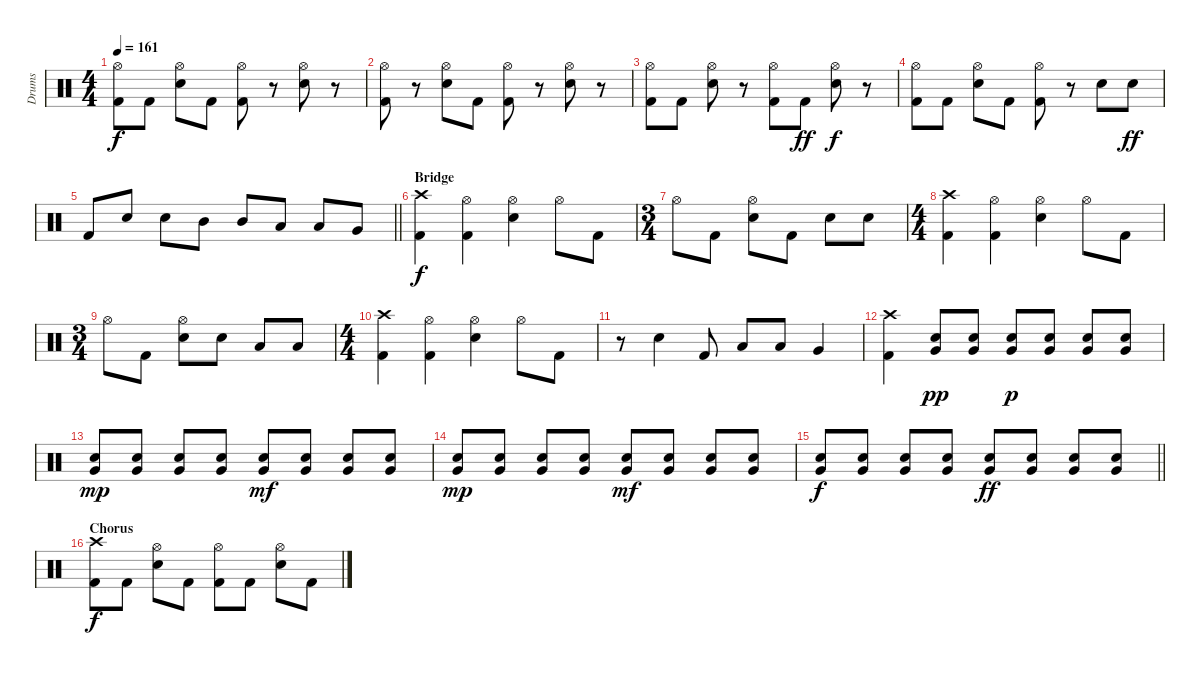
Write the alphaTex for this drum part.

\track ("Drums" "Drums") {instrument percussion}
\staff {score}
\articulation defaults
\ts (4 4)
\tempo 161
\clef neutral
\ks c
("Hi-Hat (open)" "Kick (hit) 2").8{dy f} "Kick (hit) 2".8 ("Hi-Hat (open)" "Snare (hit) 2").8 "Kick (hit) 2".8 ("Hi-Hat (open)" "Kick (hit) 2").8 r.8 ("Hi-Hat (open)" "Snare (hit) 2").8 r.8 |
("Hi-Hat (open)" "Kick (hit) 2").8 r.8 ("Hi-Hat (open)" "Snare (hit) 2").8 "Kick (hit) 2".8 ("Hi-Hat (open)" "Kick (hit) 2").8 r.8 ("Hi-Hat (open)" "Snare (hit) 2").8 r.8 |
("Hi-Hat (open)" "Kick (hit) 2").8 "Kick (hit) 2".8 ("Hi-Hat (open)" "Snare (hit) 2").8 r.8 ("Hi-Hat (open)" "Kick (hit) 2").8 "Kick (hit) 2".8{dy ff} ("Hi-Hat (open)" "Snare (hit) 2").8{dy f} r.8 |
("Hi-Hat (open)" "Kick (hit) 2").8 "Kick (hit) 2".8 ("Hi-Hat (open)" "Snare (hit) 2").8 "Kick (hit) 2".8 ("Hi-Hat (open)" "Kick (hit) 2").8 r.8 "Snare (hit) 2".8 "Snare (hit) 2".8{dy ff} |
\barLineRight lightlight "Kick (hit) 2".8 "Snare (hit) 2".8 "Snare (hit) 2".8 "Mid Tom (hit)".8 "Mid Tom (hit)".8 "Low Tom (hit)".8 "Low Tom (hit)".8 "Very Low Tom (hit)".8
|
\section ("" "Bridge")
("Crash high (hit)" "Kick (hit) 2").4{dy f} ("Hi-Hat (open)" "Kick (hit) 2").4 ("Hi-Hat (open)" "Snare (hit) 2").4 "Hi-Hat (open)".8 "Kick (hit) 2".8 |
\ts (3 4)
"Hi-Hat (open)".8 "Kick (hit) 2".8 ("Hi-Hat (open)" "Snare (hit) 2").8 "Kick (hit) 2".8 "Snare (hit) 2".8 "Snare (hit) 2".8 |
\ts (4 4)
("Crash high (hit)" "Kick (hit) 2").4 ("Hi-Hat (open)" "Kick (hit) 2").4 ("Hi-Hat (open)" "Snare (hit) 2").4 "Hi-Hat (open)".8 "Kick (hit) 2".8 |
\ts (3 4)
"Hi-Hat (open)".8 "Kick (hit) 2".8 ("Hi-Hat (open)" "Snare (hit) 2").8 "Snare (hit) 2".8 "Low Tom (hit)".8 "Low Tom (hit)".8 |
\ts (4 4)
("Crash high (hit)" "Kick (hit) 2").4 ("Hi-Hat (open)" "Kick (hit) 2").4 ("Hi-Hat (open)" "Snare (hit) 2").4 "Hi-Hat (open)".8 "Kick (hit) 2".8 |
r.8 "Snare (hit) 2".4 "Kick (hit) 2".8 "Low Tom (hit)".8 "Low Tom (hit)".8 "Very Low Tom (hit)".4 |
("Crash high (hit)" "Kick (hit) 2").4 ("Very Low Tom (hit)" "Snare (hit) 2").8{dy pp} ("Very Low Tom (hit)" "Snare (hit) 2").8 ("Very Low Tom (hit)" "Snare (hit) 2").8{dy p} ("Very Low Tom (hit)" "Snare (hit) 2").8 ("Very Low Tom (hit)" "Snare (hit) 2").8 ("Very Low Tom (hit)" "Snare (hit) 2").8 |
("Very Low Tom (hit)" "Snare (hit) 2").8{dy mp} ("Very Low Tom (hit)" "Snare (hit) 2").8 ("Very Low Tom (hit)" "Snare (hit) 2").8 ("Very Low Tom (hit)" "Snare (hit) 2").8 ("Very Low Tom (hit)" "Snare (hit) 2").8{dy mf} ("Very Low Tom (hit)" "Snare (hit) 2").8 ("Very Low Tom (hit)" "Snare (hit) 2").8 ("Very Low Tom (hit)" "Snare (hit) 2").8 |
("Very Low Tom (hit)" "Snare (hit) 2").8{dy mp} ("Very Low Tom (hit)" "Snare (hit) 2").8 ("Very Low Tom (hit)" "Snare (hit) 2").8 ("Very Low Tom (hit)" "Snare (hit) 2").8 ("Very Low Tom (hit)" "Snare (hit) 2").8{dy mf} ("Very Low Tom (hit)" "Snare (hit) 2").8 ("Very Low Tom (hit)" "Snare (hit) 2").8 ("Very Low Tom (hit)" "Snare (hit) 2").8 |
\barLineRight lightlight
("Very Low Tom (hit)" "Snare (hit) 2").8{dy f} ("Very Low Tom (hit)" "Snare (hit) 2").8 ("Very Low Tom (hit)" "Snare (hit) 2").8 ("Very Low Tom (hit)" "Snare (hit) 2").8 ("Very Low Tom (hit)" "Snare (hit) 2").8{dy ff} ("Very Low Tom (hit)" "Snare (hit) 2").8 ("Very Low Tom (hit)" "Snare (hit) 2").8 ("Very Low Tom (hit)" "Snare (hit) 2").8 |
\section ("" "Chorus")
("Crash high (hit)" "Kick (hit) 2").8{dy f} "Kick (hit) 2".8 ("Hi-Hat (open)" "Snare (hit) 2").8 "Kick (hit) 2".8 ("Hi-Hat (open)" "Kick (hit) 2").8 "Kick (hit) 2".8 ("Hi-Hat (open)" "Snare (hit) 2").8 "Kick (hit) 2".8
